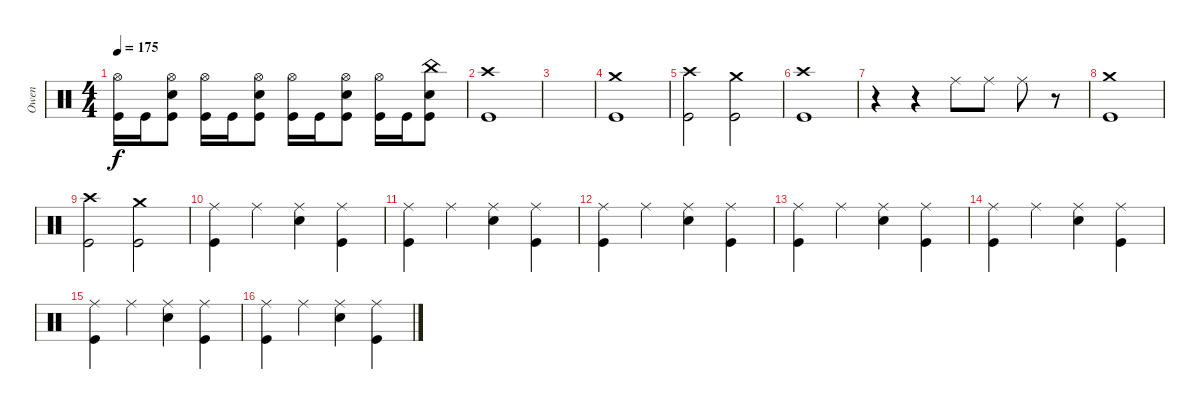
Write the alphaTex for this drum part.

\track ("Owen" "Owen") {instrument percussion}
\staff {score}
\articulation defaults
\ts (4 4)
\tempo 175
\clef neutral
\ks c
("Hi-Hat (open)" "Kick (hit)").16{dy f} "Kick (hit)".16 ("Hi-Hat (open)" "Snare (hit) 2" "Kick (hit)").8 ("Hi-Hat (open)" "Kick (hit)").16 "Kick (hit)".16 ("Hi-Hat (open)" "Snare (hit) 2" "Kick (hit)").8 ("Hi-Hat (open)" "Kick (hit)").16 "Kick (hit)".16 ("Hi-Hat (open)" "Snare (hit) 2" "Kick (hit)").8 ("Hi-Hat (open)" "Kick (hit)").16 "Kick (hit)".16 ("China (hit)" "Snare (hit) 2" "Kick (hit)").8 |
("Crash high (hit)" "Kick (hit)").1 |
|
("Crash medium (hit)" "Kick (hit)").1 |
("Crash high (hit)" "Kick (hit)").2 ("Crash medium (hit)" "Kick (hit)").2 |
("Crash high (hit)" "Kick (hit)").1 |
r.4 r.4 "Ride (middle)".8 "Ride (middle)".8 "Ride (middle)".8 r.8 |
("Crash medium (hit)" "Kick (hit)").1 |
("Crash high (hit)" "Kick (hit)").2 ("Crash medium (hit)" "Kick (hit)").2 |
("Ride (middle)" "Kick (hit)").4 "Ride (middle)".4 ("Ride (middle)" "Snare (hit) 2").4 ("Ride (middle)" "Kick (hit)").4 |
("Ride (middle)" "Kick (hit)").4 "Ride (middle)".4 ("Ride (middle)" "Snare (hit) 2").4 ("Ride (middle)" "Kick (hit)").4 |
("Ride (middle)" "Kick (hit)").4 "Ride (middle)".4 ("Ride (middle)" "Snare (hit) 2").4 ("Ride (middle)" "Kick (hit)").4 |
("Ride (middle)" "Kick (hit)").4 "Ride (middle)".4 ("Ride (middle)" "Snare (hit) 2").4 ("Ride (middle)" "Kick (hit)").4 |
("Ride (middle)" "Kick (hit)").4 "Ride (middle)".4 ("Ride (middle)" "Snare (hit) 2").4 ("Ride (middle)" "Kick (hit)").4 |
("Ride (middle)" "Kick (hit)").4 "Ride (middle)".4 ("Ride (middle)" "Snare (hit) 2").4 ("Ride (middle)" "Kick (hit)").4 |
("Ride (middle)" "Kick (hit)").4 "Ride (middle)".4 ("Ride (middle)" "Snare (hit) 2").4 ("Ride (middle)" "Kick (hit)").4
